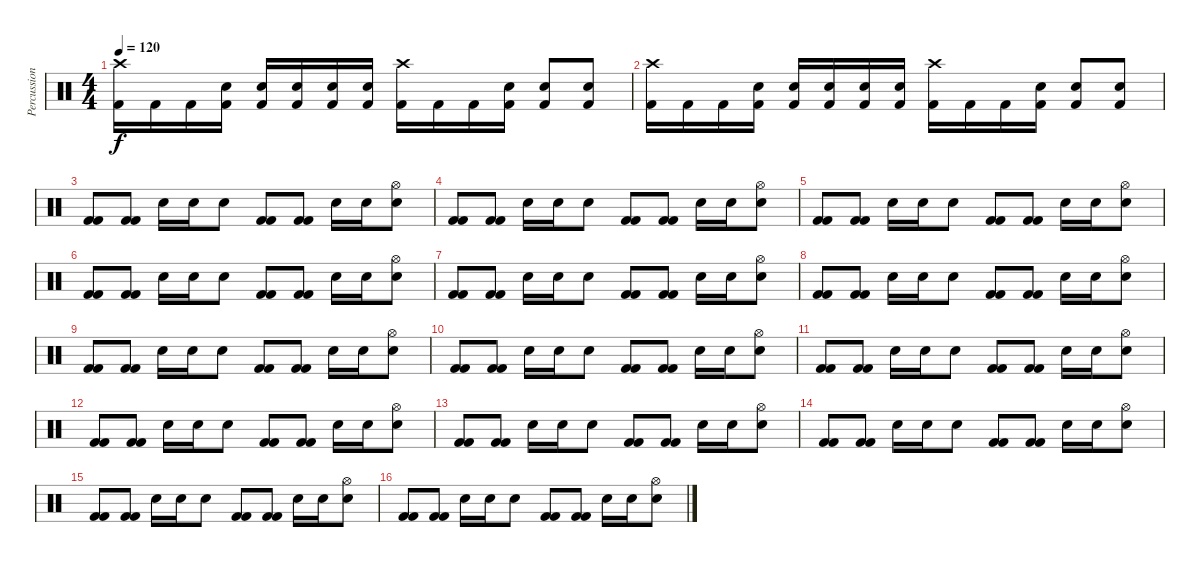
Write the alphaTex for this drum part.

\track ("Percussioni" "Percussion") {instrument percussion}
\staff {score}
\articulation defaults
\ts (4 4)
\tempo 120
\clef neutral
\ks c
("Kick (hit) 2" "Crash high (hit)").16{dy f} "Kick (hit) 2".16 "Kick (hit) 2".16 ("Kick (hit) 2" "Electric Snare (hit)").16 ("Kick (hit) 2" "Electric Snare (hit)").16 ("Kick (hit) 2" "Electric Snare (hit)").16 ("Kick (hit) 2" "Electric Snare (hit)").16 ("Kick (hit) 2" "Electric Snare (hit)").16 ("Kick (hit) 2" "Crash high (hit)").16 "Kick (hit) 2".16 "Kick (hit) 2".16 ("Kick (hit) 2" "Electric Snare (hit)").16 ("Kick (hit) 2" "Electric Snare (hit)").8 ("Kick (hit) 2" "Electric Snare (hit)").8 |
("Kick (hit) 2" "Crash high (hit)").16 "Kick (hit) 2".16 "Kick (hit) 2".16 ("Kick (hit) 2" "Electric Snare (hit)").16 ("Kick (hit) 2" "Electric Snare (hit)").16 ("Kick (hit) 2" "Electric Snare (hit)").16 ("Kick (hit) 2" "Electric Snare (hit)").16 ("Kick (hit) 2" "Electric Snare (hit)").16 ("Kick (hit) 2" "Crash high (hit)").16 "Kick (hit) 2".16 "Kick (hit) 2".16 ("Kick (hit) 2" "Electric Snare (hit)").16 ("Kick (hit) 2" "Electric Snare (hit)").8 ("Kick (hit) 2" "Electric Snare (hit)").8 |
("Kick (hit) 2" "Kick (hit) 2").8 ("Kick (hit) 2" "Kick (hit) 2").8 "Electric Snare (hit)".16 "Electric Snare (hit)".16 "Electric Snare (hit)".8 ("Kick (hit) 2" "Kick (hit) 2").8 ("Kick (hit) 2" "Kick (hit) 2").8 "Electric Snare (hit)".16 "Electric Snare (hit)".16 ("Electric Snare (hit)" "Hi-Hat (open)").8 |
("Kick (hit) 2" "Kick (hit) 2").8 ("Kick (hit) 2" "Kick (hit) 2").8 "Electric Snare (hit)".16 "Electric Snare (hit)".16 "Electric Snare (hit)".8 ("Kick (hit) 2" "Kick (hit) 2").8 ("Kick (hit) 2" "Kick (hit) 2").8 "Electric Snare (hit)".16 "Electric Snare (hit)".16 ("Electric Snare (hit)" "Hi-Hat (open)").8 |
("Kick (hit) 2" "Kick (hit) 2").8 ("Kick (hit) 2" "Kick (hit) 2").8 "Electric Snare (hit)".16 "Electric Snare (hit)".16 "Electric Snare (hit)".8 ("Kick (hit) 2" "Kick (hit) 2").8 ("Kick (hit) 2" "Kick (hit) 2").8 "Electric Snare (hit)".16 "Electric Snare (hit)".16 ("Electric Snare (hit)" "Hi-Hat (open)").8 |
("Kick (hit) 2" "Kick (hit) 2").8 ("Kick (hit) 2" "Kick (hit) 2").8 "Electric Snare (hit)".16 "Electric Snare (hit)".16 "Electric Snare (hit)".8 ("Kick (hit) 2" "Kick (hit) 2").8 ("Kick (hit) 2" "Kick (hit) 2").8 "Electric Snare (hit)".16 "Electric Snare (hit)".16 ("Electric Snare (hit)" "Hi-Hat (open)").8 |
("Kick (hit) 2" "Kick (hit) 2").8 ("Kick (hit) 2" "Kick (hit) 2").8 "Electric Snare (hit)".16 "Electric Snare (hit)".16 "Electric Snare (hit)".8 ("Kick (hit) 2" "Kick (hit) 2").8 ("Kick (hit) 2" "Kick (hit) 2").8 "Electric Snare (hit)".16 "Electric Snare (hit)".16 ("Electric Snare (hit)" "Hi-Hat (open)").8 |
("Kick (hit) 2" "Kick (hit) 2").8 ("Kick (hit) 2" "Kick (hit) 2").8 "Electric Snare (hit)".16 "Electric Snare (hit)".16 "Electric Snare (hit)".8 ("Kick (hit) 2" "Kick (hit) 2").8 ("Kick (hit) 2" "Kick (hit) 2").8 "Electric Snare (hit)".16 "Electric Snare (hit)".16 ("Electric Snare (hit)" "Hi-Hat (open)").8 |
("Kick (hit) 2" "Kick (hit) 2").8 ("Kick (hit) 2" "Kick (hit) 2").8 "Electric Snare (hit)".16 "Electric Snare (hit)".16 "Electric Snare (hit)".8 ("Kick (hit) 2" "Kick (hit) 2").8 ("Kick (hit) 2" "Kick (hit) 2").8 "Electric Snare (hit)".16 "Electric Snare (hit)".16 ("Electric Snare (hit)" "Hi-Hat (open)").8 |
("Kick (hit) 2" "Kick (hit) 2").8 ("Kick (hit) 2" "Kick (hit) 2").8 "Electric Snare (hit)".16 "Electric Snare (hit)".16 "Electric Snare (hit)".8 ("Kick (hit) 2" "Kick (hit) 2").8 ("Kick (hit) 2" "Kick (hit) 2").8 "Electric Snare (hit)".16 "Electric Snare (hit)".16 ("Electric Snare (hit)" "Hi-Hat (open)").8 |
("Kick (hit) 2" "Kick (hit) 2").8 ("Kick (hit) 2" "Kick (hit) 2").8 "Electric Snare (hit)".16 "Electric Snare (hit)".16 "Electric Snare (hit)".8 ("Kick (hit) 2" "Kick (hit) 2").8 ("Kick (hit) 2" "Kick (hit) 2").8 "Electric Snare (hit)".16 "Electric Snare (hit)".16 ("Electric Snare (hit)" "Hi-Hat (open)").8 |
("Kick (hit) 2" "Kick (hit) 2").8 ("Kick (hit) 2" "Kick (hit) 2").8 "Electric Snare (hit)".16 "Electric Snare (hit)".16 "Electric Snare (hit)".8 ("Kick (hit) 2" "Kick (hit) 2").8 ("Kick (hit) 2" "Kick (hit) 2").8 "Electric Snare (hit)".16 "Electric Snare (hit)".16 ("Electric Snare (hit)" "Hi-Hat (open)").8 |
("Kick (hit) 2" "Kick (hit) 2").8 ("Kick (hit) 2" "Kick (hit) 2").8 "Electric Snare (hit)".16 "Electric Snare (hit)".16 "Electric Snare (hit)".8 ("Kick (hit) 2" "Kick (hit) 2").8 ("Kick (hit) 2" "Kick (hit) 2").8 "Electric Snare (hit)".16 "Electric Snare (hit)".16 ("Electric Snare (hit)" "Hi-Hat (open)").8 |
("Kick (hit) 2" "Kick (hit) 2").8 ("Kick (hit) 2" "Kick (hit) 2").8 "Electric Snare (hit)".16 "Electric Snare (hit)".16 "Electric Snare (hit)".8 ("Kick (hit) 2" "Kick (hit) 2").8 ("Kick (hit) 2" "Kick (hit) 2").8 "Electric Snare (hit)".16 "Electric Snare (hit)".16 ("Electric Snare (hit)" "Hi-Hat (open)").8 |
("Kick (hit) 2" "Kick (hit) 2").8 ("Kick (hit) 2" "Kick (hit) 2").8 "Electric Snare (hit)".16 "Electric Snare (hit)".16 "Electric Snare (hit)".8 ("Kick (hit) 2" "Kick (hit) 2").8 ("Kick (hit) 2" "Kick (hit) 2").8 "Electric Snare (hit)".16 "Electric Snare (hit)".16 ("Electric Snare (hit)" "Hi-Hat (open)").8 |
("Kick (hit) 2" "Kick (hit) 2").8 ("Kick (hit) 2" "Kick (hit) 2").8 "Electric Snare (hit)".16 "Electric Snare (hit)".16 "Electric Snare (hit)".8 ("Kick (hit) 2" "Kick (hit) 2").8 ("Kick (hit) 2" "Kick (hit) 2").8 "Electric Snare (hit)".16 "Electric Snare (hit)".16 ("Electric Snare (hit)" "Hi-Hat (open)").8
